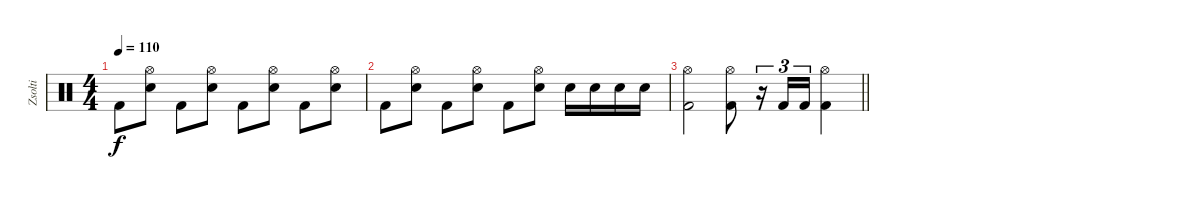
\track ("Zsolti" "Zsolti") {instrument percussion}
\staff {score}
\articulation defaults
\ts (4 4)
\tempo 110
\clef neutral
\ks c "Kick (hit) 2".8{dy f}
("Hi-Hat (open)" "Snare (hit) 2").8 "Kick (hit) 2".8 ("Hi-Hat (open)" "Snare (hit) 2").8 "Kick (hit) 2".8 ("Hi-Hat (open)" "Snare (hit) 2").8 "Kick (hit) 2".8 ("Hi-Hat (open)" "Snare (hit) 2").8 |
"Kick (hit) 2".8 ("Hi-Hat (open)" "Snare (hit) 2").8 "Kick (hit) 2".8 ("Hi-Hat (open)" "Snare (hit) 2").8 "Kick (hit) 2".8 ("Hi-Hat (open)" "Snare (hit) 2").8 "Snare (hit) 2".16 "Snare (hit) 2".16 "Snare (hit) 2".16 "Snare (hit) 2".16 |
\barLineRight lightlight
("Hi-Hat (open)" "Kick (hit) 2").2 ("Hi-Hat (open)" "Kick (hit) 2").8 r.16{tu (3 2)} "Kick (hit) 2".16{tu (3 2)} "Kick (hit) 2".16{tu (3 2)} ("Hi-Hat (open)" "Kick (hit) 2").4
